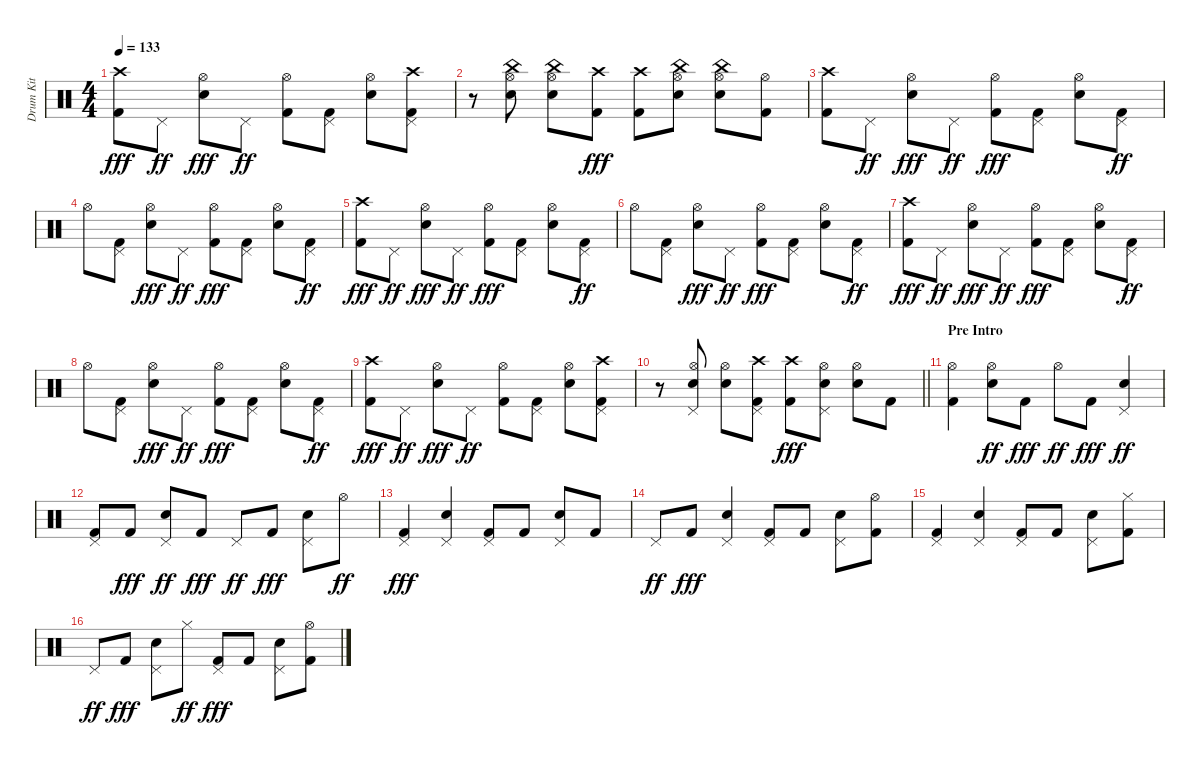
\track ("Drum Kit" "Drum Kit") {instrument percussion}
\staff {score}
\articulation defaults
\ts (4 4)
\tempo 133
\clef neutral
\ks c
("Crash high (hit)" "Kick (hit) 2").8{dy fff} "Pedal Hi-Hat (hit)".8{dy ff} ("Hi-Hat (open)" "Electric Snare (hit)").8{dy fff} "Pedal Hi-Hat (hit)".8{dy ff} ("Kick (hit) 2" "Hi-Hat (open)").8 ("Kick (hit) 2" "Pedal Hi-Hat (hit)").8 ("Electric Snare (hit)" "Hi-Hat (open)").8 ("Crash high (hit)" "Kick (hit) 2" "Pedal Hi-Hat (hit)").8 |
r.8 ("China (hit)" "Electric Snare (hit)" "Hi-Hat (open)").8 ("China (hit)" "Electric Snare (hit)" "Hi-Hat (open)").8 ("Crash high (hit)" "Kick (hit) 2").8{dy fff} ("Crash high (hit)" "Kick (hit) 2").8 ("China (hit)" "Hi-Hat (open)" "Electric Snare (hit)").8 ("China (hit)" "Hi-Hat (open)" "Electric Snare (hit)").8 ("Hi-Hat (open)" "Kick (hit) 2").8 |
("Crash high (hit)" "Kick (hit) 2").8 "Pedal Hi-Hat (hit)".8{dy ff} ("Hi-Hat (open)" "Electric Snare (hit)").8{dy fff} "Pedal Hi-Hat (hit)".8{dy ff} ("Hi-Hat (open)" "Kick (hit) 2").8{dy fff} ("Pedal Hi-Hat (hit)" "Kick (hit) 2").8 ("Hi-Hat (open)" "Electric Snare (hit)").8 ("Kick (hit) 2" "Pedal Hi-Hat (hit)").8{dy ff} |
"Hi-Hat (open)".8 ("Kick (hit) 2" "Pedal Hi-Hat (hit)").8 ("Hi-Hat (open)" "Electric Snare (hit)").8{dy fff} "Pedal Hi-Hat (hit)".8{dy ff} ("Hi-Hat (open)" "Kick (hit) 2").8{dy fff} ("Pedal Hi-Hat (hit)" "Kick (hit) 2").8 ("Hi-Hat (open)" "Electric Snare (hit)").8 ("Kick (hit) 2" "Pedal Hi-Hat (hit)").8{dy ff} |
("Crash high (hit)" "Kick (hit) 2").8{dy fff} "Pedal Hi-Hat (hit)".8{dy ff} ("Hi-Hat (open)" "Electric Snare (hit)").8{dy fff} "Pedal Hi-Hat (hit)".8{dy ff} ("Hi-Hat (open)" "Kick (hit) 2").8{dy fff} ("Pedal Hi-Hat (hit)" "Kick (hit) 2").8 ("Hi-Hat (open)" "Electric Snare (hit)").8 ("Kick (hit) 2" "Pedal Hi-Hat (hit)").8{dy ff} |
"Hi-Hat (open)".8 ("Kick (hit) 2" "Pedal Hi-Hat (hit)").8 ("Hi-Hat (open)" "Electric Snare (hit)").8{dy fff} "Pedal Hi-Hat (hit)".8{dy ff} ("Hi-Hat (open)" "Kick (hit) 2").8{dy fff} ("Pedal Hi-Hat (hit)" "Kick (hit) 2").8 ("Hi-Hat (open)" "Electric Snare (hit)").8 ("Kick (hit) 2" "Pedal Hi-Hat (hit)").8{dy ff} |
("Crash high (hit)" "Kick (hit) 2").8{dy fff} "Pedal Hi-Hat (hit)".8{dy ff} ("Hi-Hat (open)" "Electric Snare (hit)").8{dy fff} "Pedal Hi-Hat (hit)".8{dy ff} ("Hi-Hat (open)" "Kick (hit) 2").8{dy fff} ("Pedal Hi-Hat (hit)" "Kick (hit) 2").8 ("Hi-Hat (open)" "Electric Snare (hit)").8 ("Kick (hit) 2" "Pedal Hi-Hat (hit)").8{dy ff} |
"Hi-Hat (open)".8 ("Kick (hit) 2" "Pedal Hi-Hat (hit)").8 ("Hi-Hat (open)" "Electric Snare (hit)").8{dy fff} "Pedal Hi-Hat (hit)".8{dy ff} ("Hi-Hat (open)" "Kick (hit) 2").8{dy fff} ("Pedal Hi-Hat (hit)" "Kick (hit) 2").8 ("Hi-Hat (open)" "Electric Snare (hit)").8 ("Kick (hit) 2" "Pedal Hi-Hat (hit)").8{dy ff} |
("Crash high (hit)" "Kick (hit) 2").8{dy fff} "Pedal Hi-Hat (hit)".8{dy ff} ("Hi-Hat (open)" "Electric Snare (hit)").8{dy fff} "Pedal Hi-Hat (hit)".8{dy ff} ("Kick (hit) 2" "Hi-Hat (open)").8 ("Kick (hit) 2" "Pedal Hi-Hat (hit)").8 ("Electric Snare (hit)" "Hi-Hat (open)").8 ("Crash high (hit)" "Kick (hit) 2" "Pedal Hi-Hat (hit)").8 |
\barLineRight lightlight
r.8 ("Electric Snare (hit)" "Hi-Hat (open)" "Pedal Hi-Hat (hit)").8 ("Electric Snare (hit)" "Hi-Hat (open)").8 ("Kick (hit) 2" "Crash high (hit)" "Pedal Hi-Hat (hit)").8 ("Crash high (hit)" "Kick (hit) 2").8{dy fff} ("Pedal Hi-Hat (hit)" "Hi-Hat (open)" "Electric Snare (hit)").8 ("Hi-Hat (open)" "Electric Snare (hit)").8 "Kick (hit) 2".8 |
\section ("" "Pre Intro")
("Hi-Hat (open)" "Kick (hit) 2").4 ("Electric Snare (hit)" "Hi-Hat (open)").8{dy ff} "Kick (hit) 2".8{dy fff} "Hi-Hat (open)".8{dy ff} "Kick (hit) 2".8{dy fff} ("Electric Snare (hit)" "Pedal Hi-Hat (hit)").4{dy ff} |
("Kick (hit) 2" "Pedal Hi-Hat (hit)").8 "Kick (hit) 2".8{dy fff} ("Electric Snare (hit)" "Pedal Hi-Hat (hit)").8{dy ff} "Kick (hit) 2".8{dy fff} "Pedal Hi-Hat (hit)".8{dy ff} "Kick (hit) 2".8{dy fff} ("Pedal Hi-Hat (hit)" "Electric Snare (hit)").8 "Hi-Hat (open)".8{dy ff} |
("Pedal Hi-Hat (hit)" "Kick (hit) 2").4{dy fff} ("Pedal Hi-Hat (hit)" "Electric Snare (hit)").4 ("Pedal Hi-Hat (hit)" "Kick (hit) 2").8 "Kick (hit) 2".8 ("Pedal Hi-Hat (hit)" "Electric Snare (hit)").8 "Kick (hit) 2".8 |
"Pedal Hi-Hat (hit)".8{dy ff} "Kick (hit) 2".8{dy fff} ("Pedal Hi-Hat (hit)" "Electric Snare (hit)").4 ("Pedal Hi-Hat (hit)" "Kick (hit) 2").8 "Kick (hit) 2".8 ("Pedal Hi-Hat (hit)" "Electric Snare (hit)").8 ("Hi-Hat (open)" "Kick (hit) 2").8 |
("Pedal Hi-Hat (hit)" "Kick (hit) 2").4 ("Pedal Hi-Hat (hit)" "Electric Snare (hit)").4 ("Pedal Hi-Hat (hit)" "Kick (hit) 2").8 "Kick (hit) 2".8 ("Pedal Hi-Hat (hit)" "Electric Snare (hit)").8 ("Hi-Hat (closed)" "Kick (hit) 2").8 |
"Pedal Hi-Hat (hit)".8{dy ff} "Kick (hit) 2".8{dy fff} ("Pedal Hi-Hat (hit)" "Electric Snare (hit)").8 "Hi-Hat (closed)".8{dy ff} ("Pedal Hi-Hat (hit)" "Kick (hit) 2").8{dy fff} "Kick (hit) 2".8 ("Pedal Hi-Hat (hit)" "Electric Snare (hit)").8 ("Hi-Hat (open)" "Kick (hit) 2").8
